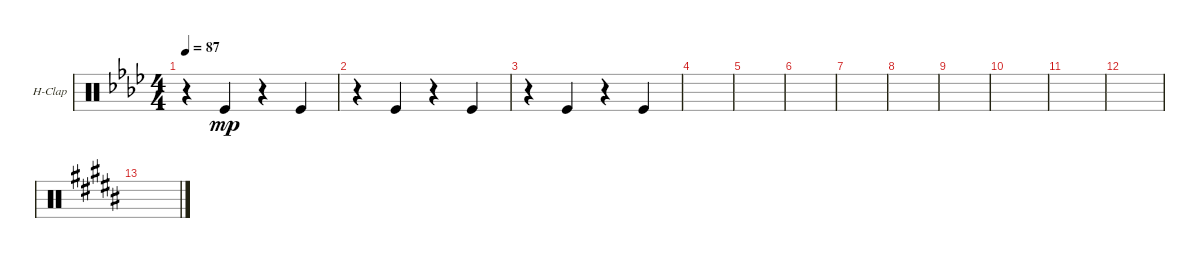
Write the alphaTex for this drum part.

\defaultSystemsLayout 4
\bracketExtendMode groupsimilarinstruments
\firstSystemTrackNameOrientation horizontal
\otherSystemsTrackNameOrientation horizontal
\track ("Hand Clap" "H-Clap") {instrument percussion}
\staff {score}
\articulation defaults
\ts (4 4)
\tempo 87
\clef neutral
\ks ab
r.4{dy mp} "Kick (hit)".4 r.4 "Kick (hit)".4 |
r.4 "Kick (hit)".4 r.4 "Kick (hit)".4 |
r.4 "Kick (hit)".4 r.4 "Kick (hit)".4 |
|
|
|
|
|
|
|
|
|
\ks b
